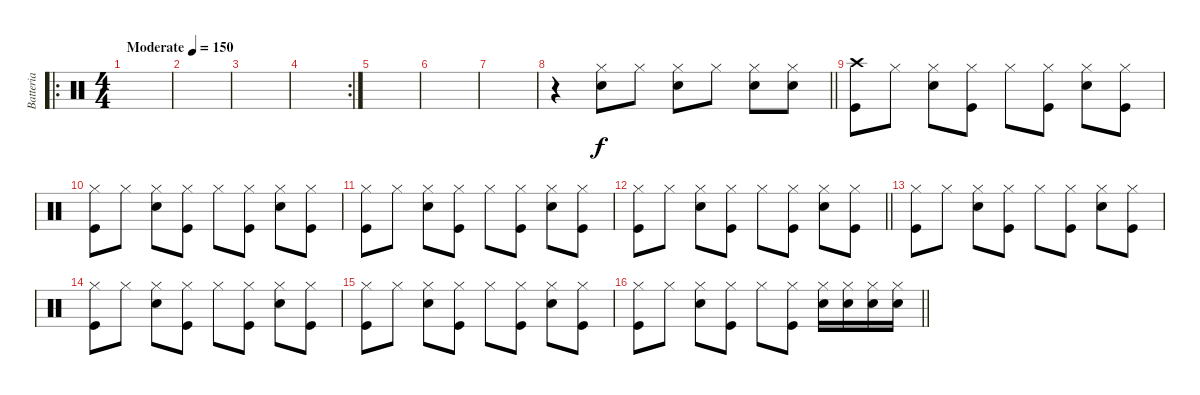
\track ("Batteria" "Batteria") {instrument percussion}
\staff {score}
\articulation defaults
\ro
\ts (4 4)
\tempo (150 "Moderate")
\clef neutral
\ks c
|
|
|
\rc 2
|
|
|
|
\barLineRight lightlight
r.4 ("Hi-Hat (closed)" "Snare (hit) 2").8 "Hi-Hat (closed)".8 ("Hi-Hat (closed)" "Snare (hit) 2").8 "Hi-Hat (closed)".8 ("Hi-Hat (closed)" "Snare (hit) 2").8 ("Hi-Hat (closed)" "Snare (hit) 2").8 |
("Kick (hit)" "Crash high (hit)").8 "Hi-Hat (closed)".8 ("Snare (hit) 2" "Hi-Hat (closed)").8 ("Kick (hit)" "Hi-Hat (closed)").8 "Hi-Hat (closed)".8 ("Kick (hit)" "Hi-Hat (closed)").8 ("Snare (hit) 2" "Hi-Hat (closed)").8 ("Kick (hit)" "Hi-Hat (closed)").8 |
("Kick (hit)" "Hi-Hat (closed)").8 "Hi-Hat (closed)".8 ("Snare (hit) 2" "Hi-Hat (closed)").8 ("Kick (hit)" "Hi-Hat (closed)").8 "Hi-Hat (closed)".8 ("Kick (hit)" "Hi-Hat (closed)").8 ("Snare (hit) 2" "Hi-Hat (closed)").8 ("Kick (hit)" "Hi-Hat (closed)").8 |
("Kick (hit)" "Hi-Hat (closed)").8 "Hi-Hat (closed)".8 ("Snare (hit) 2" "Hi-Hat (closed)").8 ("Kick (hit)" "Hi-Hat (closed)").8 "Hi-Hat (closed)".8 ("Kick (hit)" "Hi-Hat (closed)").8 ("Snare (hit) 2" "Hi-Hat (closed)").8 ("Kick (hit)" "Hi-Hat (closed)").8 |
\barLineRight lightlight
("Kick (hit)" "Hi-Hat (closed)").8 "Hi-Hat (closed)".8 ("Snare (hit) 2" "Hi-Hat (closed)").8 ("Kick (hit)" "Hi-Hat (closed)").8 "Hi-Hat (closed)".8 ("Kick (hit)" "Hi-Hat (closed)").8 ("Snare (hit) 2" "Hi-Hat (closed)").8 ("Kick (hit)" "Hi-Hat (closed)").8 |
("Kick (hit)" "Hi-Hat (closed)").8 "Hi-Hat (closed)".8 ("Snare (hit) 2" "Hi-Hat (closed)").8 ("Kick (hit)" "Hi-Hat (closed)").8 "Hi-Hat (closed)".8 ("Kick (hit)" "Hi-Hat (closed)").8 ("Snare (hit) 2" "Hi-Hat (closed)").8 ("Kick (hit)" "Hi-Hat (closed)").8 |
("Kick (hit)" "Hi-Hat (closed)").8 "Hi-Hat (closed)".8 ("Snare (hit) 2" "Hi-Hat (closed)").8 ("Kick (hit)" "Hi-Hat (closed)").8 "Hi-Hat (closed)".8 ("Kick (hit)" "Hi-Hat (closed)").8 ("Snare (hit) 2" "Hi-Hat (closed)").8 ("Kick (hit)" "Hi-Hat (closed)").8 |
("Kick (hit)" "Hi-Hat (closed)").8 "Hi-Hat (closed)".8 ("Snare (hit) 2" "Hi-Hat (closed)").8 ("Kick (hit)" "Hi-Hat (closed)").8 "Hi-Hat (closed)".8 ("Kick (hit)" "Hi-Hat (closed)").8 ("Snare (hit) 2" "Hi-Hat (closed)").8 ("Kick (hit)" "Hi-Hat (closed)").8 |
\barLineRight lightlight
("Kick (hit)" "Hi-Hat (closed)").8 "Hi-Hat (closed)".8 ("Snare (hit) 2" "Hi-Hat (closed)").8 ("Kick (hit)" "Hi-Hat (closed)").8 "Hi-Hat (closed)".8 ("Kick (hit)" "Hi-Hat (closed)").8 ("Snare (hit) 2" "Hi-Hat (closed)").16 ("Snare (hit) 2" "Hi-Hat (closed)").16 ("Snare (hit) 2" "Hi-Hat (closed)").16 ("Snare (hit) 2" "Hi-Hat (closed)").16
